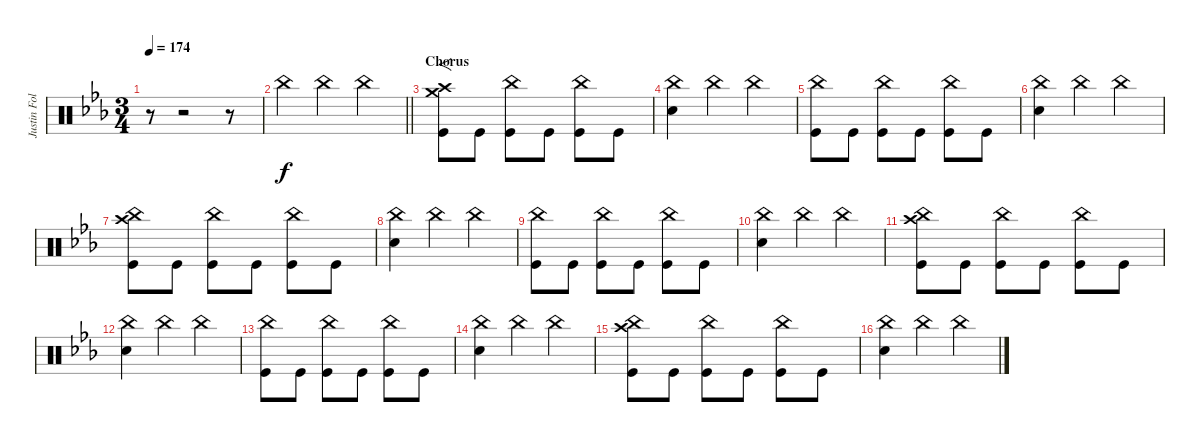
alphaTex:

\track ("Justin Foley" "Justin Fol") {instrument percussion}
\staff {score}
\articulation defaults
\ts (3 4)
\tempo 174
\clef neutral
\ks cminor
r.8{dy f} r.2 r.8 |
\barLineRight lightlight "China (hit)".4 "China (hit)".4 "China (hit)".4
|
\section ("" "Chorus")
("Kick (hit)" "Crash high (hit)" "Crash medium (hit)").8{f} "Kick (hit)".8 ("Kick (hit)" "China (hit)").8 "Kick (hit)".8 ("Kick (hit)" "China (hit)").8 "Kick (hit)".8 |
("Snare (hit) 2" "China (hit)").4 "China (hit)".4 "China (hit)".4 |
("Kick (hit)" "China (hit)").8 "Kick (hit)".8 ("Kick (hit)" "China (hit)").8 "Kick (hit)".8 ("Kick (hit)" "China (hit)").8 "Kick (hit)".8 |
("Snare (hit) 2" "China (hit)").4 "China (hit)".4 "China (hit)".4 |
("Kick (hit)" "China (hit)" "Crash high (hit)").8 "Kick (hit)".8 ("Kick (hit)" "China (hit)").8 "Kick (hit)".8 ("Kick (hit)" "China (hit)").8 "Kick (hit)".8 |
("Snare (hit) 2" "China (hit)").4 "China (hit)".4 "China (hit)".4 |
("Kick (hit)" "China (hit)").8 "Kick (hit)".8 ("Kick (hit)" "China (hit)").8 "Kick (hit)".8 ("Kick (hit)" "China (hit)").8 "Kick (hit)".8 |
("Snare (hit) 2" "China (hit)").4 "China (hit)".4 "China (hit)".4 |
("Kick (hit)" "China (hit)" "Crash high (hit)").8 "Kick (hit)".8 ("Kick (hit)" "China (hit)").8 "Kick (hit)".8 ("Kick (hit)" "China (hit)").8 "Kick (hit)".8 |
("Snare (hit) 2" "China (hit)").4 "China (hit)".4 "China (hit)".4 |
("Kick (hit)" "China (hit)").8 "Kick (hit)".8 ("Kick (hit)" "China (hit)").8 "Kick (hit)".8 ("Kick (hit)" "China (hit)").8 "Kick (hit)".8 |
("Snare (hit) 2" "China (hit)").4 "China (hit)".4 "China (hit)".4 |
("Kick (hit)" "China (hit)" "Crash high (hit)").8 "Kick (hit)".8 ("Kick (hit)" "China (hit)").8 "Kick (hit)".8 ("Kick (hit)" "China (hit)").8 "Kick (hit)".8 |
("Snare (hit) 2" "China (hit)").4 "China (hit)".4 "China (hit)".4
